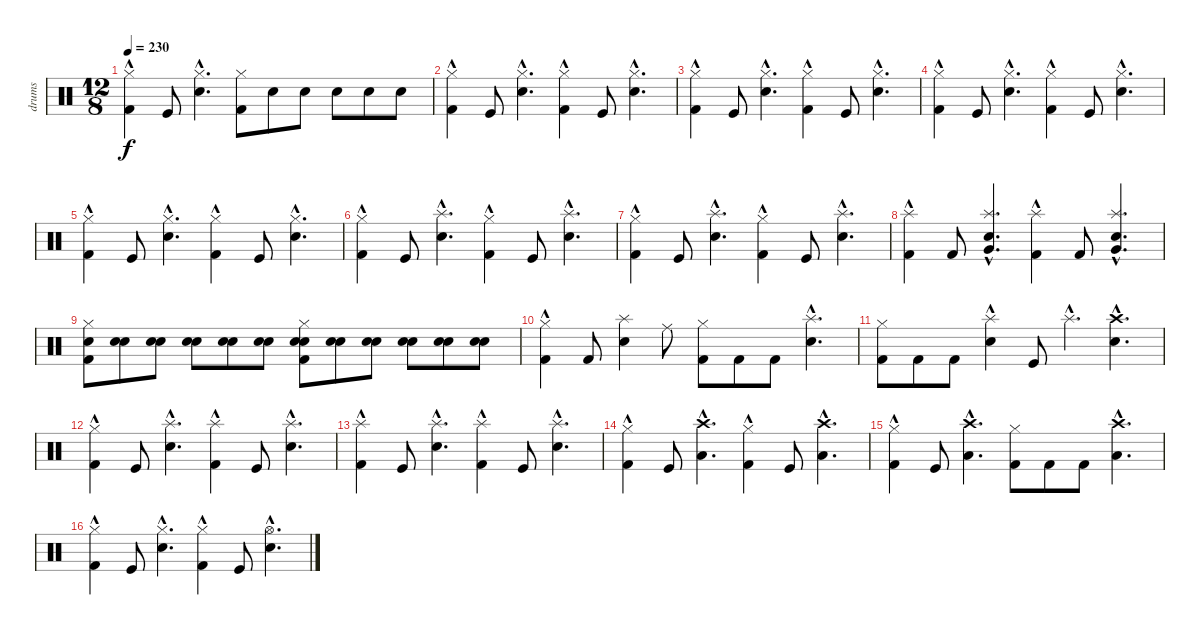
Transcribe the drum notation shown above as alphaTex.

\track ("drums" "drums") {instrument percussion}
\staff {score}
\articulation defaults
\ts (12 8)
\tempo 230
\clef neutral
\ks c
("Hi-Hat (closed)"{hac} "Kick (hit) 2").4{dy f} "Kick (hit)".8 ("Hi-Hat (closed)"{hac} "Snare (hit) 2"{hac}).4{d} ("Hi-Hat (closed)" "Kick (hit) 2").8 "Snare (hit) 2".8 "Snare (hit) 2".8 "Snare (hit) 2".8 "Snare (hit) 2".8 "Snare (hit) 2".8 |
("Hi-Hat (closed)"{hac} "Kick (hit) 2").4 "Kick (hit)".8 ("Hi-Hat (closed)"{hac} "Snare (hit) 2"{hac}).4{d} ("Hi-Hat (closed)"{hac} "Kick (hit) 2").4 "Kick (hit)".8 ("Hi-Hat (closed)"{hac} "Snare (hit) 2"{hac}).4{d} |
("Hi-Hat (closed)"{hac} "Kick (hit) 2").4 "Kick (hit)".8 ("Hi-Hat (closed)"{hac} "Snare (hit) 2"{hac}).4{d} ("Hi-Hat (closed)"{hac} "Kick (hit) 2").4 "Kick (hit)".8 ("Hi-Hat (closed)"{hac} "Snare (hit) 2"{hac}).4{d} |
("Hi-Hat (closed)"{hac} "Kick (hit) 2").4 "Kick (hit)".8 ("Hi-Hat (closed)"{hac} "Snare (hit) 2"{hac}).4{d} ("Hi-Hat (closed)"{hac} "Kick (hit) 2").4 "Kick (hit)".8 ("Hi-Hat (closed)"{hac} "Snare (hit) 2"{hac}).4{d} |
("Hi-Hat (closed)"{hac} "Kick (hit) 2").4 "Kick (hit)".8 ("Hi-Hat (closed)"{hac} "Snare (hit) 2"{hac}).4{d} ("Hi-Hat (closed)"{hac} "Kick (hit) 2").4 "Kick (hit)".8 ("Hi-Hat (closed)"{hac} "Snare (hit) 2"{hac}).4{d} |
("Kick (hit) 2" "Hi-Hat (closed)"{hac}).4 "Kick (hit)".8 ("Snare (hit) 2"{hac} "Splash (hit)"{hac}).4{d} ("Kick (hit) 2" "Hi-Hat (closed)"{hac}).4 "Kick (hit)".8 ("Splash (hit)"{hac} "Snare (hit) 2"{hac}).4{d} |
("Kick (hit) 2" "Hi-Hat (closed)"{hac}).4 "Kick (hit)".8 ("Snare (hit) 2"{hac} "Splash (hit)"{hac}).4{d} ("Kick (hit) 2" "Hi-Hat (closed)"{hac}).4 "Kick (hit)".8 ("Splash (hit)"{hac} "Snare (hit) 2"{hac}).4{d} |
("Kick (hit) 2" "Splash (hit)"{hac}).4 "Kick (hit) 2".8 ("Very Low Tom (hit)"{hac} "Snare (hit) 2"{hac} "Splash (hit)"{hac}).4{d} ("Kick (hit) 2" "Splash (hit)"{hac}).4 "Kick (hit) 2".8 ("Splash (hit)"{hac} "Snare (hit) 2"{hac} "Very Low Tom (hit)"{hac}).4{d} |
("Snare (hit) 2" "Hi-Hat (closed)" "Kick (hit) 2").8 ("Electric Snare (hit)" "Snare (hit) 2").8 ("Electric Snare (hit)" "Snare (hit) 2").8 ("Electric Snare (hit)" "Snare (hit) 2").8 ("Electric Snare (hit)" "Snare (hit) 2").8 ("Electric Snare (hit)" "Snare (hit) 2").8 ("Electric Snare (hit)" "Snare (hit) 2" "Hi-Hat (closed)" "Kick (hit) 2").8 ("Electric Snare (hit)" "Snare (hit) 2").8 ("Electric Snare (hit)" "Snare (hit) 2").8 ("Electric Snare (hit)" "Snare (hit) 2").8 ("Electric Snare (hit)" "Snare (hit) 2").8 ("Electric Snare (hit)" "Snare (hit) 2").8 |
("Hi-Hat (closed)"{hac} "Kick (hit) 2").4 "Kick (hit) 2".8 ("Splash (hit)" "Snare (hit) 2").4 "Ride (middle)".8 ("Hi-Hat (closed)" "Kick (hit) 2").8 "Kick (hit) 2".8 "Kick (hit) 2".8 ("Splash (hit)"{hac} "Electric Snare (hit)"{hac}).4{d} |
("Hi-Hat (closed)" "Kick (hit) 2").8 "Kick (hit) 2".8 "Kick (hit) 2".8 ("Splash (hit)"{hac} "Snare (hit) 2").4 "Kick (hit)".8 "Splash (hit)"{hac}.4{d} ("Crash high (hit)"{hac} "Snare (hit) 2"{hac}).4{d} |
("Hi-Hat (closed)"{hac} "Kick (hit) 2").4 "Kick (hit)".8 ("Snare (hit) 2"{hac} "Splash (hit)"{hac}).4{d} ("Kick (hit) 2" "Splash (hit)"{hac}).4 "Kick (hit)".8 ("Snare (hit) 2"{hac} "Splash (hit)"{hac}).4{d} |
("Kick (hit) 2" "Splash (hit)"{hac}).4 "Kick (hit)".8 ("Snare (hit) 2"{hac} "Splash (hit)"{hac}).4{d} ("Kick (hit) 2" "Splash (hit)"{hac}).4 "Kick (hit)".8 ("Snare (hit) 2"{hac} "Splash (hit)"{hac}).4{d} |
("Kick (hit) 2" "Hi-Hat (closed)"{hac}).4 "Kick (hit)".8 ("Crash high (hit)"{hac} "Low Tom (hit)"{hac}).4{d} ("Hi-Hat (closed)"{hac} "Kick (hit) 2").4 "Kick (hit)".8 ("Crash high (hit)"{hac} "Low Tom (hit)"{hac}).4{d} |
("Hi-Hat (closed)"{hac} "Kick (hit) 2").4 "Kick (hit)".8 ("Crash high (hit)"{hac} "Low Tom (hit)"{hac}).4{d} ("Hi-Hat (closed)" "Kick (hit) 2").8 "Kick (hit) 2".8 "Kick (hit) 2".8 ("Crash high (hit)"{hac} "Low Tom (hit)"{hac}).4{d} |
("Hi-Hat (closed)"{hac} "Kick (hit) 2").4 "Kick (hit)".8 ("Hi-Hat (closed)"{hac} "Snare (hit) 2"{hac}).4{d} ("Hi-Hat (closed)"{hac} "Kick (hit) 2").4 "Kick (hit)".8 ("Hi-Hat (open)"{hac} "Snare (hit) 2"{hac}).4{d}
